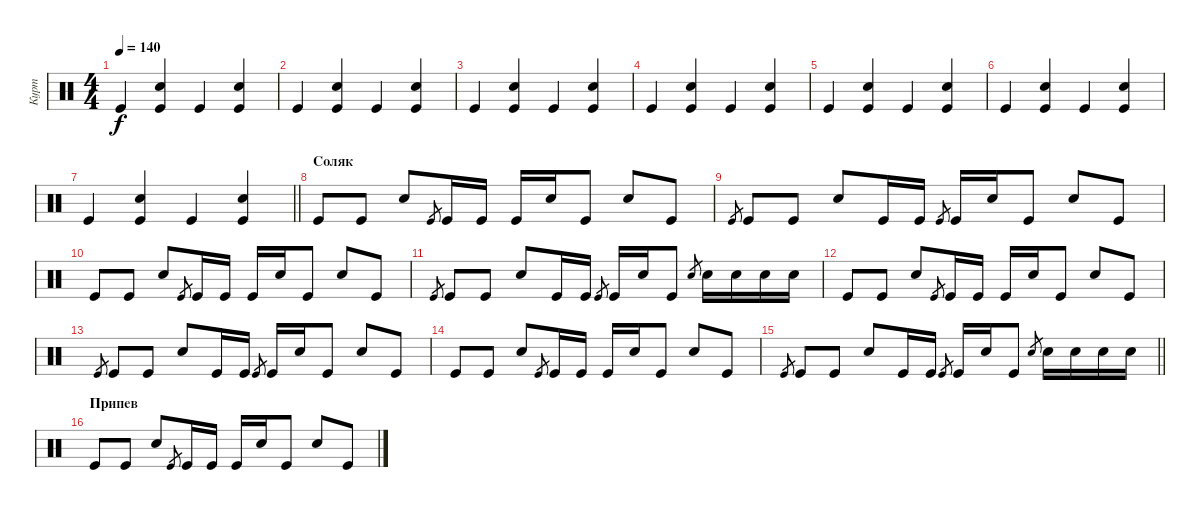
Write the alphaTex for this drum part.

\track ("Курт" "Курт") {instrument percussion}
\staff {score}
\articulation defaults
\ts (4 4)
\tempo 140
\clef neutral
\ks c "Kick (hit)".4{dy f}
("Kick (hit)" "Snare (hit) 2").4 "Kick (hit)".4 ("Kick (hit)" "Snare (hit) 2").4 |
"Kick (hit)".4 ("Kick (hit)" "Snare (hit) 2").4 "Kick (hit)".4 ("Kick (hit)" "Snare (hit) 2").4 |
"Kick (hit)".4 ("Kick (hit)" "Snare (hit) 2").4 "Kick (hit)".4 ("Kick (hit)" "Snare (hit) 2").4 |
"Kick (hit)".4 ("Kick (hit)" "Snare (hit) 2").4 "Kick (hit)".4 ("Kick (hit)" "Snare (hit) 2").4 |
"Kick (hit)".4 ("Kick (hit)" "Snare (hit) 2").4 "Kick (hit)".4 ("Kick (hit)" "Snare (hit) 2").4 |
"Kick (hit)".4 ("Kick (hit)" "Snare (hit) 2").4 "Kick (hit)".4 ("Kick (hit)" "Snare (hit) 2").4 |
\barLineRight lightlight "Kick (hit)".4
("Kick (hit)" "Snare (hit) 2").4 "Kick (hit)".4 ("Kick (hit)" "Snare (hit) 2").4 |
\section ("" "Соляк")
"Kick (hit)".8 "Kick (hit)".8 "Snare (hit) 2".8 "Kick (hit)".8{gr} "Kick (hit)".16 "Kick (hit)".16 "Kick (hit)".16 "Snare (hit) 2".16 "Kick (hit)".8 "Snare (hit) 2".8 "Kick (hit)".8 |
"Kick (hit)".8{gr} "Kick (hit)".8 "Kick (hit)".8 "Snare (hit) 2".8 "Kick (hit)".16 "Kick (hit)".16 "Kick (hit)".8{gr} "Kick (hit)".16 "Snare (hit) 2".16 "Kick (hit)".8 "Snare (hit) 2".8 "Kick (hit)".8 |
"Kick (hit)".8 "Kick (hit)".8 "Snare (hit) 2".8 "Kick (hit)".8{gr} "Kick (hit)".16 "Kick (hit)".16 "Kick (hit)".16 "Snare (hit) 2".16 "Kick (hit)".8 "Snare (hit) 2".8 "Kick (hit)".8 |
"Kick (hit)".8{gr} "Kick (hit)".8 "Kick (hit)".8 "Snare (hit) 2".8 "Kick (hit)".16 "Kick (hit)".16 "Kick (hit)".8{gr} "Kick (hit)".16 "Snare (hit) 2".16 "Kick (hit)".8 "Snare (hit) 2".8{gr} "Snare (hit) 2".16 "Snare (hit) 2".16 "Snare (hit) 2".16 "Snare (hit) 2".16 |
"Kick (hit)".8 "Kick (hit)".8 "Snare (hit) 2".8 "Kick (hit)".8{gr} "Kick (hit)".16 "Kick (hit)".16 "Kick (hit)".16 "Snare (hit) 2".16 "Kick (hit)".8 "Snare (hit) 2".8 "Kick (hit)".8 |
"Kick (hit)".8{gr} "Kick (hit)".8 "Kick (hit)".8 "Snare (hit) 2".8 "Kick (hit)".16 "Kick (hit)".16 "Kick (hit)".8{gr} "Kick (hit)".16 "Snare (hit) 2".16 "Kick (hit)".8 "Snare (hit) 2".8 "Kick (hit)".8 |
"Kick (hit)".8 "Kick (hit)".8 "Snare (hit) 2".8 "Kick (hit)".8{gr} "Kick (hit)".16 "Kick (hit)".16 "Kick (hit)".16 "Snare (hit) 2".16 "Kick (hit)".8 "Snare (hit) 2".8 "Kick (hit)".8 |
\barLineRight lightlight "Kick (hit)".8{gr} "Kick (hit)".8 "Kick (hit)".8 "Snare (hit) 2".8 "Kick (hit)".16 "Kick (hit)".16 "Kick (hit)".8{gr} "Kick (hit)".16 "Snare (hit) 2".16 "Kick (hit)".8 "Snare (hit) 2".8{gr} "Snare (hit) 2".16 "Snare (hit) 2".16 "Snare (hit) 2".16 "Snare (hit) 2".16
|
\section ("" "Припев")
"Kick (hit)".8 "Kick (hit)".8 "Snare (hit) 2".8 "Kick (hit)".8{gr} "Kick (hit)".16 "Kick (hit)".16 "Kick (hit)".16 "Snare (hit) 2".16 "Kick (hit)".8 "Snare (hit) 2".8 "Kick (hit)".8
